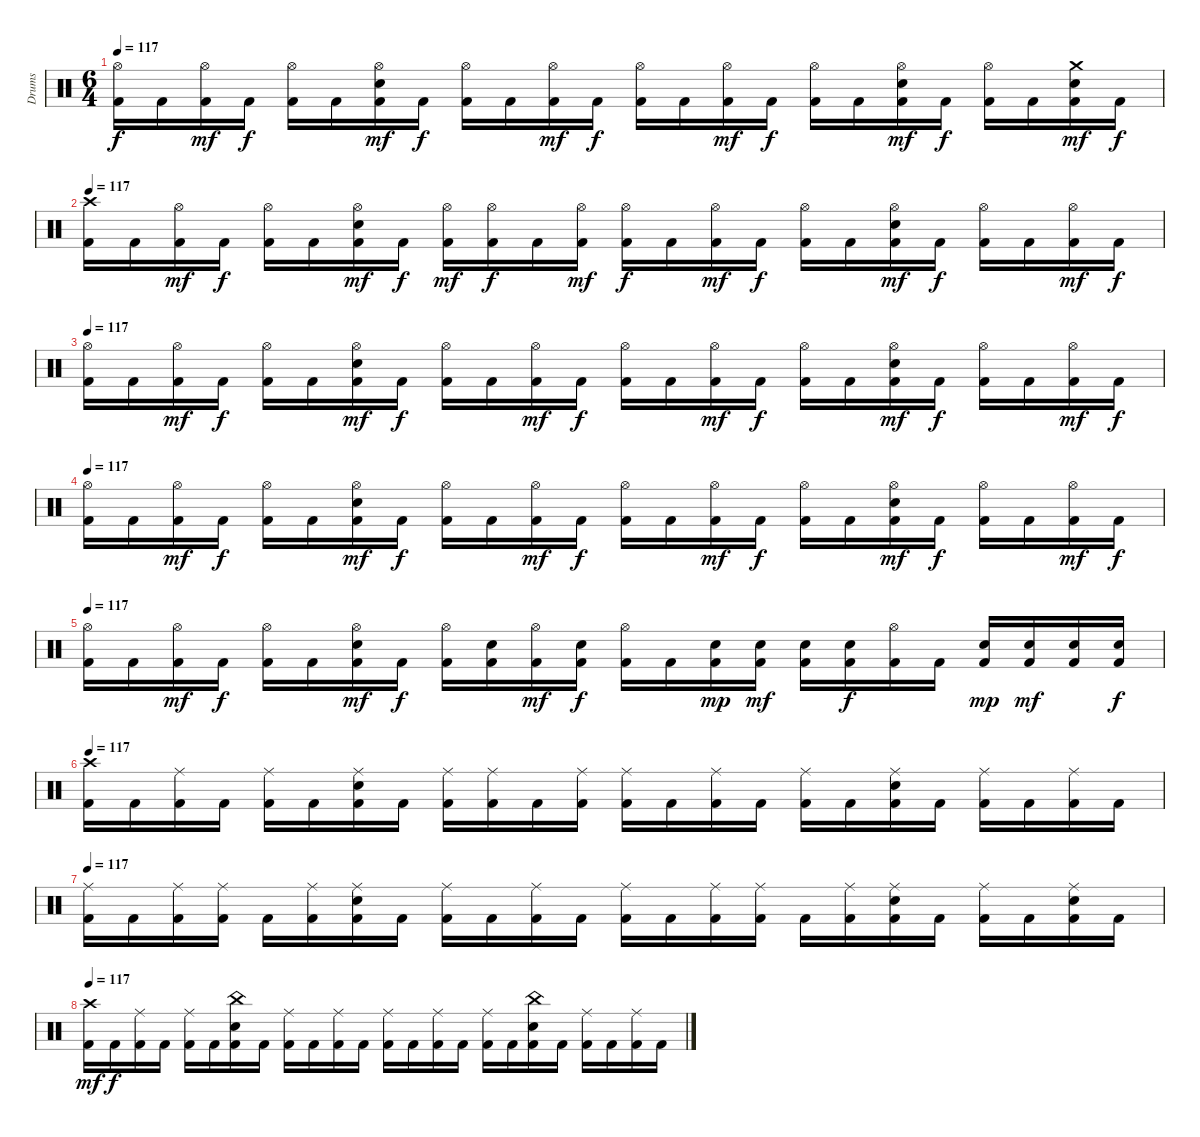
\track ("Drums" "Drums") {instrument percussion}
\staff {score}
\articulation defaults
\ts (6 4)
\tempo 117
\clef neutral
\ks c
("Hi-Hat (open)" "Kick (hit) 2").16{dy f} "Kick (hit) 2".16 ("Hi-Hat (open)" "Kick (hit) 2").16{dy mf} "Kick (hit) 2".16{dy f} ("Hi-Hat (open)" "Kick (hit) 2").16 "Kick (hit) 2".16 ("Hi-Hat (open)" "Electric Snare (hit)" "Kick (hit) 2").16{dy mf} "Kick (hit) 2".16{dy f} ("Hi-Hat (open)" "Kick (hit) 2").16 "Kick (hit) 2".16 ("Hi-Hat (open)" "Kick (hit) 2").16{dy mf} "Kick (hit) 2".16{dy f} ("Hi-Hat (open)" "Kick (hit) 2").16 "Kick (hit) 2".16 ("Hi-Hat (open)" "Kick (hit) 2").16{dy mf} "Kick (hit) 2".16{dy f} ("Hi-Hat (open)" "Kick (hit) 2").16 "Kick (hit) 2".16 ("Hi-Hat (open)" "Electric Snare (hit)" "Kick (hit) 2").16{dy mf} "Kick (hit) 2".16{dy f} ("Hi-Hat (open)" "Kick (hit) 2").16 "Kick (hit) 2".16 ("Crash medium (hit)" "Electric Snare (hit)" "Kick (hit) 2").16{dy mf} "Kick (hit) 2".16{dy f} |
\tempo 117
("Crash high (hit)" "Kick (hit) 2").16 "Kick (hit) 2".16 ("Hi-Hat (open)" "Kick (hit) 2").16{dy mf} "Kick (hit) 2".16{dy f} ("Hi-Hat (open)" "Kick (hit) 2").16 "Kick (hit) 2".16 ("Hi-Hat (open)" "Electric Snare (hit)" "Kick (hit) 2").16{dy mf} "Kick (hit) 2".16{dy f} ("Hi-Hat (open)" "Kick (hit) 2").16{dy mf} ("Hi-Hat (open)" "Kick (hit) 2").16{dy f} "Kick (hit) 2".16 ("Hi-Hat (open)" "Kick (hit) 2").16{dy mf} ("Hi-Hat (open)" "Kick (hit) 2").16{dy f} "Kick (hit) 2".16 ("Hi-Hat (open)" "Kick (hit) 2").16{dy mf} "Kick (hit) 2".16{dy f} ("Hi-Hat (open)" "Kick (hit) 2").16 "Kick (hit) 2".16 ("Hi-Hat (open)" "Electric Snare (hit)" "Kick (hit) 2").16{dy mf} "Kick (hit) 2".16{dy f} ("Hi-Hat (open)" "Kick (hit) 2").16 "Kick (hit) 2".16 ("Hi-Hat (open)" "Kick (hit) 2").16{dy mf} "Kick (hit) 2".16{dy f} |
\tempo 117
("Hi-Hat (open)" "Kick (hit) 2").16 "Kick (hit) 2".16 ("Hi-Hat (open)" "Kick (hit) 2").16{dy mf} "Kick (hit) 2".16{dy f} ("Hi-Hat (open)" "Kick (hit) 2").16 "Kick (hit) 2".16 ("Hi-Hat (open)" "Electric Snare (hit)" "Kick (hit) 2").16{dy mf} "Kick (hit) 2".16{dy f} ("Hi-Hat (open)" "Kick (hit) 2").16 "Kick (hit) 2".16 ("Hi-Hat (open)" "Kick (hit) 2").16{dy mf} "Kick (hit) 2".16{dy f} ("Hi-Hat (open)" "Kick (hit) 2").16 "Kick (hit) 2".16 ("Hi-Hat (open)" "Kick (hit) 2").16{dy mf} "Kick (hit) 2".16{dy f} ("Hi-Hat (open)" "Kick (hit) 2").16 "Kick (hit) 2".16 ("Hi-Hat (open)" "Electric Snare (hit)" "Kick (hit) 2").16{dy mf} "Kick (hit) 2".16{dy f} ("Hi-Hat (open)" "Kick (hit) 2").16 "Kick (hit) 2".16 ("Hi-Hat (open)" "Kick (hit) 2").16{dy mf} "Kick (hit) 2".16{dy f} |
\tempo 117
("Hi-Hat (open)" "Kick (hit) 2").16 "Kick (hit) 2".16 ("Hi-Hat (open)" "Kick (hit) 2").16{dy mf} "Kick (hit) 2".16{dy f} ("Hi-Hat (open)" "Kick (hit) 2").16 "Kick (hit) 2".16 ("Hi-Hat (open)" "Electric Snare (hit)" "Kick (hit) 2").16{dy mf} "Kick (hit) 2".16{dy f} ("Hi-Hat (open)" "Kick (hit) 2").16 "Kick (hit) 2".16 ("Hi-Hat (open)" "Kick (hit) 2").16{dy mf} "Kick (hit) 2".16{dy f} ("Hi-Hat (open)" "Kick (hit) 2").16 "Kick (hit) 2".16 ("Hi-Hat (open)" "Kick (hit) 2").16{dy mf} "Kick (hit) 2".16{dy f} ("Hi-Hat (open)" "Kick (hit) 2").16 "Kick (hit) 2".16 ("Hi-Hat (open)" "Electric Snare (hit)" "Kick (hit) 2").16{dy mf} "Kick (hit) 2".16{dy f} ("Hi-Hat (open)" "Kick (hit) 2").16 "Kick (hit) 2".16 ("Hi-Hat (open)" "Kick (hit) 2").16{dy mf} "Kick (hit) 2".16{dy f} |
\tempo 117
("Hi-Hat (open)" "Kick (hit) 2").16 "Kick (hit) 2".16 ("Hi-Hat (open)" "Kick (hit) 2").16{dy mf} "Kick (hit) 2".16{dy f} ("Hi-Hat (open)" "Kick (hit) 2").16 "Kick (hit) 2".16 ("Hi-Hat (open)" "Electric Snare (hit)" "Kick (hit) 2").16{dy mf} "Kick (hit) 2".16{dy f} ("Hi-Hat (open)" "Kick (hit) 2").16 ("Electric Snare (hit)" "Kick (hit) 2").16 ("Hi-Hat (open)" "Kick (hit) 2").16{dy mf} ("Electric Snare (hit)" "Kick (hit) 2").16{dy f} ("Hi-Hat (open)" "Kick (hit) 2").16 "Kick (hit) 2".16 ("Electric Snare (hit)" "Kick (hit) 2").16{dy mp} ("Electric Snare (hit)" "Kick (hit) 2").16{dy mf} ("Electric Snare (hit)" "Kick (hit) 2").16 ("Electric Snare (hit)" "Kick (hit) 2").16{dy f} ("Hi-Hat (open)" "Kick (hit) 2").16 "Kick (hit) 2".16 ("Electric Snare (hit)" "Kick (hit) 2").16{dy mp} ("Electric Snare (hit)" "Kick (hit) 2").16{dy mf} ("Electric Snare (hit)" "Kick (hit) 2").16 ("Electric Snare (hit)" "Kick (hit) 2").16{dy f} |
\tempo 117
("Crash high (hit)" "Kick (hit) 2").16 "Kick (hit) 2".16 ("Ride (middle)" "Kick (hit) 2").16 "Kick (hit) 2".16 ("Ride (middle)" "Kick (hit) 2").16 "Kick (hit) 2".16 ("Ride (middle)" "Electric Snare (hit)" "Kick (hit) 2").16 "Kick (hit) 2".16 ("Ride (middle)" "Kick (hit) 2").16 ("Ride (middle)" "Kick (hit) 2").16 "Kick (hit) 2".16 ("Ride (middle)" "Kick (hit) 2").16 ("Ride (middle)" "Kick (hit) 2").16 "Kick (hit) 2".16 ("Ride (middle)" "Kick (hit) 2").16 "Kick (hit) 2".16 ("Ride (middle)" "Kick (hit) 2").16 "Kick (hit) 2".16 ("Ride (middle)" "Electric Snare (hit)" "Kick (hit) 2").16 "Kick (hit) 2".16 ("Ride (middle)" "Kick (hit) 2").16 "Kick (hit) 2".16 ("Ride (middle)" "Kick (hit) 2").16 "Kick (hit) 2".16 |
\tempo 117
("Ride (middle)" "Kick (hit) 2").16 "Kick (hit) 2".16 ("Ride (middle)" "Kick (hit) 2").16 ("Ride (middle)" "Kick (hit) 2").16 "Kick (hit) 2".16 ("Ride (middle)" "Kick (hit) 2").16 ("Ride (middle)" "Electric Snare (hit)" "Kick (hit) 2").16 "Kick (hit) 2".16 ("Ride (middle)" "Kick (hit) 2").16 "Kick (hit) 2".16 ("Ride (middle)" "Kick (hit) 2").16 "Kick (hit) 2".16 ("Ride (middle)" "Kick (hit) 2").16 "Kick (hit) 2".16 ("Ride (middle)" "Kick (hit) 2").16 ("Ride (middle)" "Kick (hit) 2").16 "Kick (hit) 2".16 ("Ride (middle)" "Kick (hit) 2").16 ("Ride (middle)" "Electric Snare (hit)" "Kick (hit) 2").16 "Kick (hit) 2".16 ("Ride (middle)" "Kick (hit) 2").16 "Kick (hit) 2".16 ("Ride (middle)" "Electric Snare (hit)" "Kick (hit) 2").16 "Kick (hit) 2".16 |
\tempo 117
("Crash high (hit)" "Kick (hit) 2").16{dy mf} "Kick (hit) 2".16{dy f} ("Ride (middle)" "Kick (hit) 2").16 "Kick (hit) 2".16 ("Ride (middle)" "Kick (hit) 2").16 "Kick (hit) 2".16 ("China (hit)" "Electric Snare (hit)" "Kick (hit) 2").16 "Kick (hit) 2".16 ("Ride (middle)" "Kick (hit) 2").16 "Kick (hit) 2".16 ("Ride (middle)" "Kick (hit) 2").16 "Kick (hit) 2".16 ("Ride (middle)" "Kick (hit) 2").16 "Kick (hit) 2".16 ("Ride (middle)" "Kick (hit) 2").16 "Kick (hit) 2".16 ("Ride (middle)" "Kick (hit) 2").16 "Kick (hit) 2".16 ("China (hit)" "Electric Snare (hit)" "Kick (hit) 2").16 "Kick (hit) 2".16 ("Ride (middle)" "Kick (hit) 2").16 "Kick (hit) 2".16 ("Ride (middle)" "Kick (hit) 2").16 "Kick (hit) 2".16
